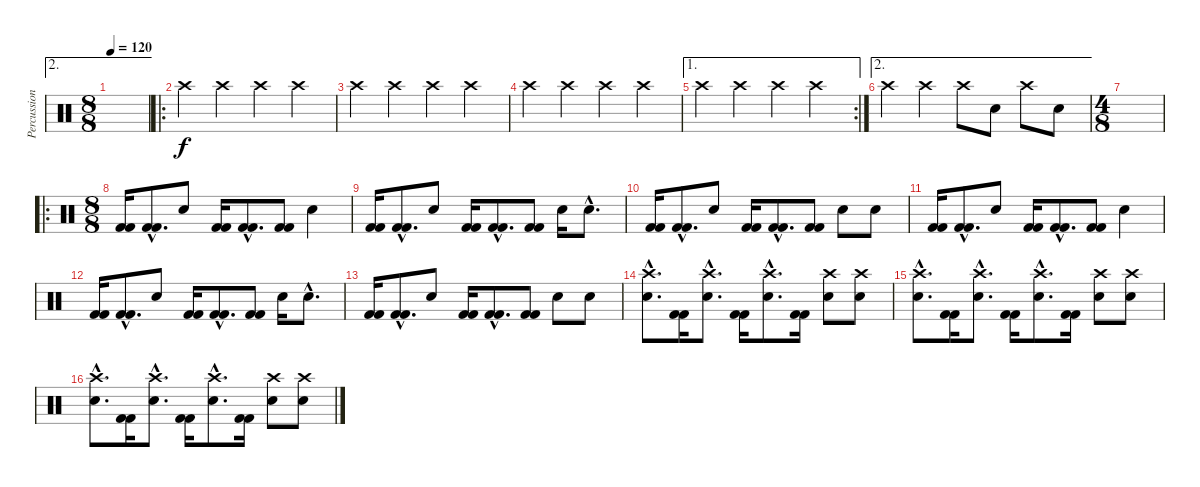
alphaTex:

\track ("Percussions" "Percussion") {instrument percussion}
\staff {score}
\articulation defaults
\ae 2
\ts (8 8)
\tempo 120
\clef neutral
\ks c
|
\ro "Crash high (hit)".4 "Crash high (hit)".4 "Crash high (hit)".4 "Crash high (hit)".4
|
"Crash high (hit)".4 "Crash high (hit)".4 "Crash high (hit)".4 "Crash high (hit)".4 |
"Crash high (hit)".4 "Crash high (hit)".4 "Crash high (hit)".4 "Crash high (hit)".4 |
\ae 1
\rc 2 "Crash high (hit)".4 "Crash high (hit)".4 "Crash high (hit)".4 "Crash high (hit)".4
|
\ae 2 "Crash high (hit)".4 "Crash high (hit)".4 "Crash high (hit)".8 "Electric Snare (hit)".8 "Crash high (hit)".8 "Electric Snare (hit)".8
|
\ts (4 8)
|
\ro
\ts (8 8)
("Kick (hit) 2" "Kick (hit) 2").16 ("Kick (hit) 2"{hac} "Kick (hit) 2"{hac}).8{d} "Electric Snare (hit)".8 ("Kick (hit) 2" "Kick (hit) 2").16 ("Kick (hit) 2"{hac} "Kick (hit) 2"{hac}).8{d} ("Kick (hit) 2" "Kick (hit) 2").8 "Electric Snare (hit)".4 |
("Kick (hit) 2" "Kick (hit) 2").16 ("Kick (hit) 2"{hac} "Kick (hit) 2"{hac}).8{d} "Electric Snare (hit)".8 ("Kick (hit) 2" "Kick (hit) 2").16 ("Kick (hit) 2"{hac} "Kick (hit) 2"{hac}).8{d} ("Kick (hit) 2" "Kick (hit) 2").8 "Electric Snare (hit)".16 "Electric Snare (hit)"{hac}.8{d} |
("Kick (hit) 2" "Kick (hit) 2").16 ("Kick (hit) 2"{hac} "Kick (hit) 2"{hac}).8{d} "Electric Snare (hit)".8 ("Kick (hit) 2" "Kick (hit) 2").16 ("Kick (hit) 2"{hac} "Kick (hit) 2"{hac}).8{d} ("Kick (hit) 2" "Kick (hit) 2").8 "Electric Snare (hit)".8 "Electric Snare (hit)".8 |
("Kick (hit) 2" "Kick (hit) 2").16 ("Kick (hit) 2"{hac} "Kick (hit) 2"{hac}).8{d} "Electric Snare (hit)".8 ("Kick (hit) 2" "Kick (hit) 2").16 ("Kick (hit) 2"{hac} "Kick (hit) 2"{hac}).8{d} ("Kick (hit) 2" "Kick (hit) 2").8 "Electric Snare (hit)".4 |
("Kick (hit) 2" "Kick (hit) 2").16 ("Kick (hit) 2"{hac} "Kick (hit) 2"{hac}).8{d} "Electric Snare (hit)".8 ("Kick (hit) 2" "Kick (hit) 2").16 ("Kick (hit) 2"{hac} "Kick (hit) 2"{hac}).8{d} ("Kick (hit) 2" "Kick (hit) 2").8 "Electric Snare (hit)".16 "Electric Snare (hit)"{hac}.8{d} |
("Kick (hit) 2" "Kick (hit) 2").16 ("Kick (hit) 2"{hac} "Kick (hit) 2"{hac}).8{d} "Electric Snare (hit)".8 ("Kick (hit) 2" "Kick (hit) 2").16 ("Kick (hit) 2"{hac} "Kick (hit) 2"{hac}).8{d} ("Kick (hit) 2" "Kick (hit) 2").8 "Electric Snare (hit)".8 "Electric Snare (hit)".8 |
("Electric Snare (hit)"{hac} "Crash high (hit)"{hac}).8{d} ("Kick (hit) 2" "Kick (hit) 2").16 ("Electric Snare (hit)"{hac} "Crash high (hit)"{hac}).8{d} ("Kick (hit) 2" "Kick (hit) 2").16 ("Electric Snare (hit)"{hac} "Crash high (hit)"{hac}).8{d} ("Kick (hit) 2" "Kick (hit) 2").16 ("Electric Snare (hit)" "Crash high (hit)").8 ("Electric Snare (hit)" "Crash high (hit)").8 |
("Electric Snare (hit)"{hac} "Crash high (hit)"{hac}).8{d} ("Kick (hit) 2" "Kick (hit) 2").16 ("Electric Snare (hit)"{hac} "Crash high (hit)"{hac}).8{d} ("Kick (hit) 2" "Kick (hit) 2").16 ("Electric Snare (hit)"{hac} "Crash high (hit)"{hac}).8{d} ("Kick (hit) 2" "Kick (hit) 2").16 ("Electric Snare (hit)" "Crash high (hit)").8 ("Electric Snare (hit)" "Crash high (hit)").8 |
("Electric Snare (hit)"{hac} "Crash high (hit)"{hac}).8{d} ("Kick (hit) 2" "Kick (hit) 2").16 ("Electric Snare (hit)"{hac} "Crash high (hit)"{hac}).8{d} ("Kick (hit) 2" "Kick (hit) 2").16 ("Electric Snare (hit)"{hac} "Crash high (hit)"{hac}).8{d} ("Kick (hit) 2" "Kick (hit) 2").16 ("Electric Snare (hit)" "Crash high (hit)").8 ("Electric Snare (hit)" "Crash high (hit)").8
